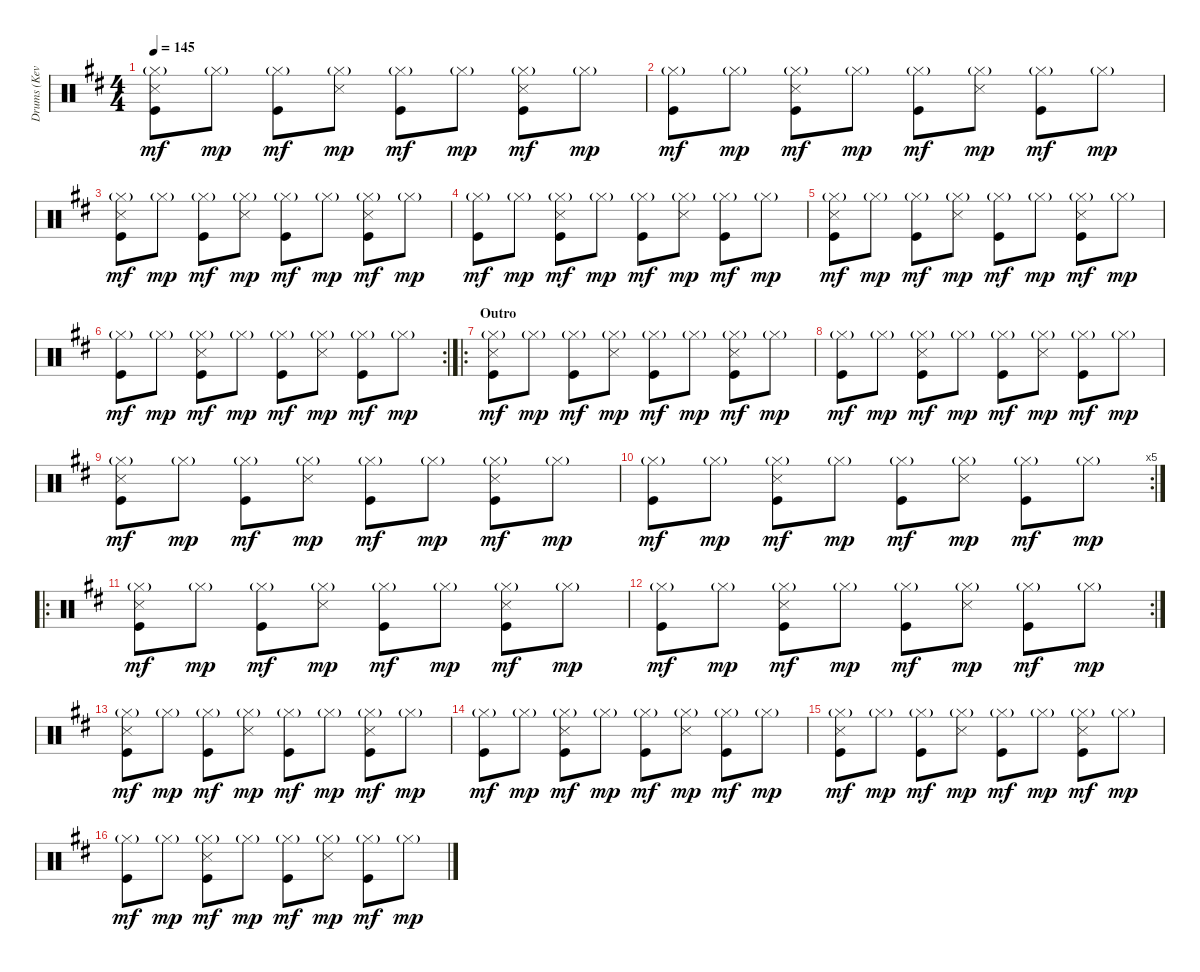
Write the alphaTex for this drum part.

\track ("Drums (Kevin Haskins)" "Drums (Kev") {instrument percussion}
\staff {score}
\articulation defaults
\ts (4 4)
\tempo 145
\clef neutral
\ks d
("Hi-Hat (closed)"{g} "Snare (side stick) 3" "Kick (hit)").8{dy mf} "Hi-Hat (closed)"{g}.8{dy mp} ("Hi-Hat (closed)"{g} "Kick (hit)").8{dy mf} ("Hi-Hat (closed)"{g} "Snare (side stick) 3").8{dy mp} ("Hi-Hat (closed)"{g} "Kick (hit)").8{dy mf} "Hi-Hat (closed)"{g}.8{dy mp} ("Hi-Hat (closed)"{g} "Snare (side stick) 3" "Kick (hit)").8{dy mf} "Hi-Hat (closed)"{g}.8{dy mp} |
("Hi-Hat (closed)"{g} "Kick (hit)").8{dy mf} "Hi-Hat (closed)"{g}.8{dy mp} ("Hi-Hat (closed)"{g} "Snare (side stick) 3" "Kick (hit)").8{dy mf} "Hi-Hat (closed)"{g}.8{dy mp} ("Hi-Hat (closed)"{g} "Kick (hit)").8{dy mf} ("Hi-Hat (closed)"{g} "Snare (side stick) 3").8{dy mp} ("Hi-Hat (closed)"{g} "Kick (hit)").8{dy mf} "Hi-Hat (closed)"{g}.8{dy mp} |
("Hi-Hat (closed)"{g} "Snare (side stick) 3" "Kick (hit)").8{dy mf} "Hi-Hat (closed)"{g}.8{dy mp} ("Hi-Hat (closed)"{g} "Kick (hit)").8{dy mf} ("Hi-Hat (closed)"{g} "Snare (side stick) 3").8{dy mp} ("Hi-Hat (closed)"{g} "Kick (hit)").8{dy mf} "Hi-Hat (closed)"{g}.8{dy mp} ("Hi-Hat (closed)"{g} "Snare (side stick) 3" "Kick (hit)").8{dy mf} "Hi-Hat (closed)"{g}.8{dy mp} |
("Hi-Hat (closed)"{g} "Kick (hit)").8{dy mf} "Hi-Hat (closed)"{g}.8{dy mp} ("Hi-Hat (closed)"{g} "Snare (side stick) 3" "Kick (hit)").8{dy mf} "Hi-Hat (closed)"{g}.8{dy mp} ("Hi-Hat (closed)"{g} "Kick (hit)").8{dy mf} ("Hi-Hat (closed)"{g} "Snare (side stick) 3").8{dy mp} ("Hi-Hat (closed)"{g} "Kick (hit)").8{dy mf} "Hi-Hat (closed)"{g}.8{dy mp} |
("Hi-Hat (closed)"{g} "Snare (side stick) 3" "Kick (hit)").8{dy mf} "Hi-Hat (closed)"{g}.8{dy mp} ("Hi-Hat (closed)"{g} "Kick (hit)").8{dy mf} ("Hi-Hat (closed)"{g} "Snare (side stick) 3").8{dy mp} ("Hi-Hat (closed)"{g} "Kick (hit)").8{dy mf} "Hi-Hat (closed)"{g}.8{dy mp} ("Hi-Hat (closed)"{g} "Snare (side stick) 3" "Kick (hit)").8{dy mf} "Hi-Hat (closed)"{g}.8{dy mp} |
\rc 2
("Hi-Hat (closed)"{g} "Kick (hit)").8{dy mf} "Hi-Hat (closed)"{g}.8{dy mp} ("Hi-Hat (closed)"{g} "Snare (side stick) 3" "Kick (hit)").8{dy mf} "Hi-Hat (closed)"{g}.8{dy mp} ("Hi-Hat (closed)"{g} "Kick (hit)").8{dy mf} ("Hi-Hat (closed)"{g} "Snare (side stick) 3").8{dy mp} ("Hi-Hat (closed)"{g} "Kick (hit)").8{dy mf} "Hi-Hat (closed)"{g}.8{dy mp} |
\ro
\section ("" "Outro")
("Hi-Hat (closed)"{g} "Snare (side stick) 3" "Kick (hit)").8{dy mf} "Hi-Hat (closed)"{g}.8{dy mp} ("Hi-Hat (closed)"{g} "Kick (hit)").8{dy mf} ("Hi-Hat (closed)"{g} "Snare (side stick) 3").8{dy mp} ("Hi-Hat (closed)"{g} "Kick (hit)").8{dy mf} "Hi-Hat (closed)"{g}.8{dy mp} ("Hi-Hat (closed)"{g} "Snare (side stick) 3" "Kick (hit)").8{dy mf} "Hi-Hat (closed)"{g}.8{dy mp} |
("Hi-Hat (closed)"{g} "Kick (hit)").8{dy mf} "Hi-Hat (closed)"{g}.8{dy mp} ("Hi-Hat (closed)"{g} "Snare (side stick) 3" "Kick (hit)").8{dy mf} "Hi-Hat (closed)"{g}.8{dy mp} ("Hi-Hat (closed)"{g} "Kick (hit)").8{dy mf} ("Hi-Hat (closed)"{g} "Snare (side stick) 3").8{dy mp} ("Hi-Hat (closed)"{g} "Kick (hit)").8{dy mf} "Hi-Hat (closed)"{g}.8{dy mp} |
("Hi-Hat (closed)"{g} "Snare (side stick) 3" "Kick (hit)").8{dy mf} "Hi-Hat (closed)"{g}.8{dy mp} ("Hi-Hat (closed)"{g} "Kick (hit)").8{dy mf} ("Hi-Hat (closed)"{g} "Snare (side stick) 3").8{dy mp} ("Hi-Hat (closed)"{g} "Kick (hit)").8{dy mf} "Hi-Hat (closed)"{g}.8{dy mp} ("Hi-Hat (closed)"{g} "Snare (side stick) 3" "Kick (hit)").8{dy mf} "Hi-Hat (closed)"{g}.8{dy mp} |
\rc 5
("Hi-Hat (closed)"{g} "Kick (hit)").8{dy mf} "Hi-Hat (closed)"{g}.8{dy mp} ("Hi-Hat (closed)"{g} "Snare (side stick) 3" "Kick (hit)").8{dy mf} "Hi-Hat (closed)"{g}.8{dy mp} ("Hi-Hat (closed)"{g} "Kick (hit)").8{dy mf} ("Hi-Hat (closed)"{g} "Snare (side stick) 3").8{dy mp} ("Hi-Hat (closed)"{g} "Kick (hit)").8{dy mf} "Hi-Hat (closed)"{g}.8{dy mp} |
\ro
("Hi-Hat (closed)"{g} "Snare (side stick) 3" "Kick (hit)").8{dy mf} "Hi-Hat (closed)"{g}.8{dy mp} ("Hi-Hat (closed)"{g} "Kick (hit)").8{dy mf} ("Hi-Hat (closed)"{g} "Snare (side stick) 3").8{dy mp} ("Hi-Hat (closed)"{g} "Kick (hit)").8{dy mf} "Hi-Hat (closed)"{g}.8{dy mp} ("Hi-Hat (closed)"{g} "Snare (side stick) 3" "Kick (hit)").8{dy mf} "Hi-Hat (closed)"{g}.8{dy mp} |
\rc 2
("Hi-Hat (closed)"{g} "Kick (hit)").8{dy mf} "Hi-Hat (closed)"{g}.8{dy mp} ("Hi-Hat (closed)"{g} "Snare (side stick) 3" "Kick (hit)").8{dy mf} "Hi-Hat (closed)"{g}.8{dy mp} ("Hi-Hat (closed)"{g} "Kick (hit)").8{dy mf} ("Hi-Hat (closed)"{g} "Snare (side stick) 3").8{dy mp} ("Hi-Hat (closed)"{g} "Kick (hit)").8{dy mf} "Hi-Hat (closed)"{g}.8{dy mp} |
("Hi-Hat (closed)"{g} "Snare (side stick) 3" "Kick (hit)").8{dy mf} "Hi-Hat (closed)"{g}.8{dy mp} ("Hi-Hat (closed)"{g} "Kick (hit)").8{dy mf} ("Hi-Hat (closed)"{g} "Snare (side stick) 3").8{dy mp} ("Hi-Hat (closed)"{g} "Kick (hit)").8{dy mf} "Hi-Hat (closed)"{g}.8{dy mp} ("Hi-Hat (closed)"{g} "Snare (side stick) 3" "Kick (hit)").8{dy mf} "Hi-Hat (closed)"{g}.8{dy mp} |
("Hi-Hat (closed)"{g} "Kick (hit)").8{dy mf} "Hi-Hat (closed)"{g}.8{dy mp} ("Hi-Hat (closed)"{g} "Snare (side stick) 3" "Kick (hit)").8{dy mf} "Hi-Hat (closed)"{g}.8{dy mp} ("Hi-Hat (closed)"{g} "Kick (hit)").8{dy mf} ("Hi-Hat (closed)"{g} "Snare (side stick) 3").8{dy mp} ("Hi-Hat (closed)"{g} "Kick (hit)").8{dy mf} "Hi-Hat (closed)"{g}.8{dy mp} |
("Hi-Hat (closed)"{g} "Snare (side stick) 3" "Kick (hit)").8{dy mf} "Hi-Hat (closed)"{g}.8{dy mp} ("Hi-Hat (closed)"{g} "Kick (hit)").8{dy mf} ("Hi-Hat (closed)"{g} "Snare (side stick) 3").8{dy mp} ("Hi-Hat (closed)"{g} "Kick (hit)").8{dy mf} "Hi-Hat (closed)"{g}.8{dy mp} ("Hi-Hat (closed)"{g} "Snare (side stick) 3" "Kick (hit)").8{dy mf} "Hi-Hat (closed)"{g}.8{dy mp} |
("Hi-Hat (closed)"{g} "Kick (hit)").8{dy mf} "Hi-Hat (closed)"{g}.8{dy mp} ("Hi-Hat (closed)"{g} "Snare (side stick) 3" "Kick (hit)").8{dy mf} "Hi-Hat (closed)"{g}.8{dy mp} ("Hi-Hat (closed)"{g} "Kick (hit)").8{dy mf} ("Hi-Hat (closed)"{g} "Snare (side stick) 3").8{dy mp} ("Hi-Hat (closed)"{g} "Kick (hit)").8{dy mf} "Hi-Hat (closed)"{g}.8{dy mp}
